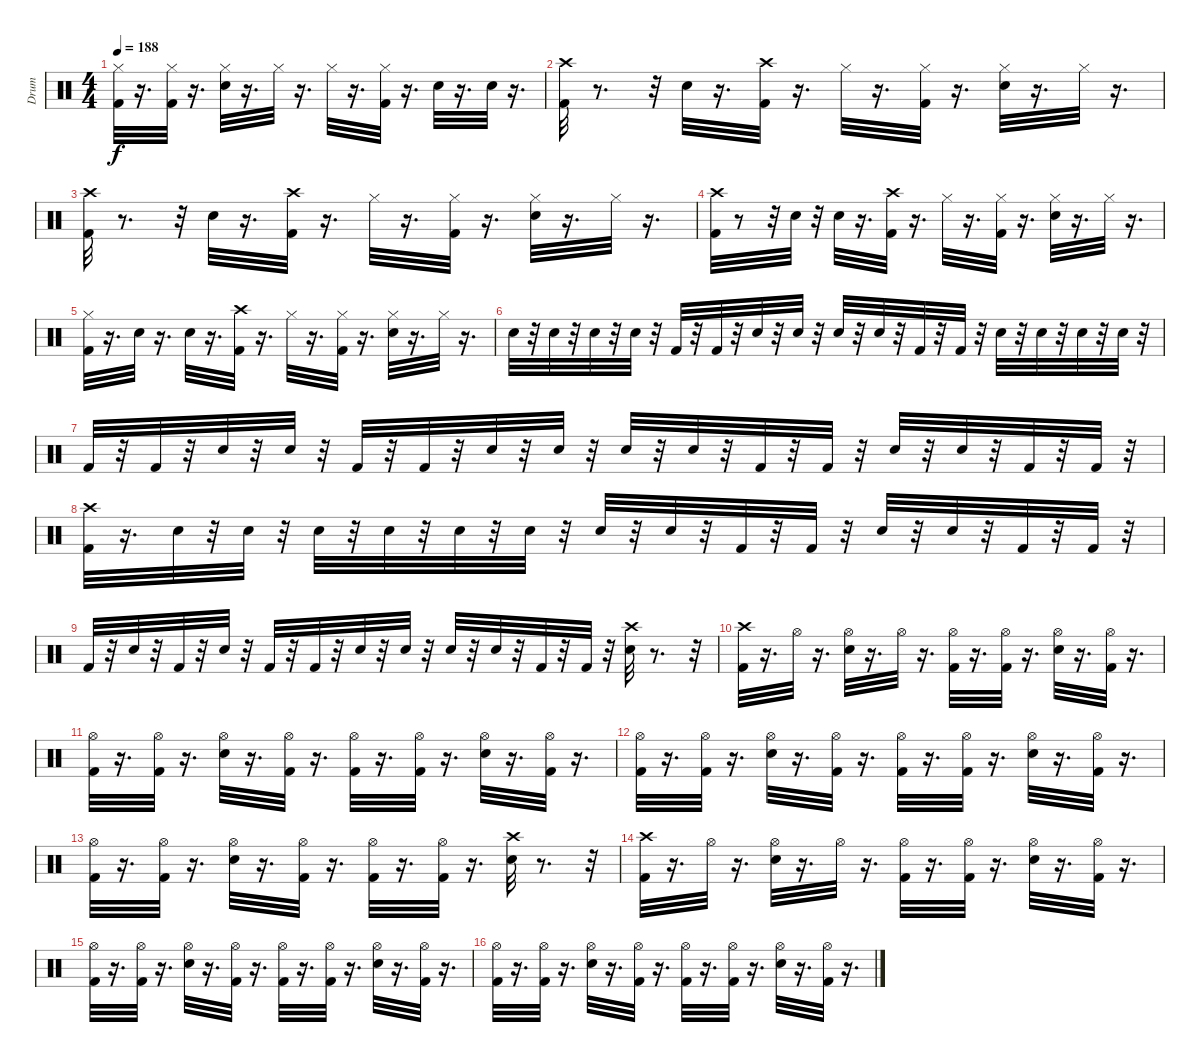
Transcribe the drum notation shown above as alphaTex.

\track ("Drum" "Drum") {instrument percussion}
\staff {score}
\articulation defaults
\ts (4 4)
\tempo 188
\clef neutral
\ks c
("Hi-Hat (closed)" "Kick (hit) 2").32{dy f} r.16{d} ("Hi-Hat (closed)" "Kick (hit) 2").32 r.16{d} ("Hi-Hat (closed)" "Snare (hit) 2").32 r.16{d} "Hi-Hat (closed)".32 r.16{d} "Hi-Hat (closed)".32 r.16{d} ("Hi-Hat (closed)" "Kick (hit) 2").32 r.16{d} "Snare (hit) 2".32 r.16{d} "Snare (hit) 2".32 r.16{d} |
("Crash high (hit)" "Kick (hit) 2").32 r.8{d} r.32 "Snare (hit) 2".32 r.16{d} ("Crash high (hit)" "Kick (hit) 2").32 r.16{d} "Hi-Hat (closed)".32 r.16{d} ("Hi-Hat (closed)" "Kick (hit) 2").32 r.16{d} ("Hi-Hat (closed)" "Snare (hit) 2").32 r.16{d} "Hi-Hat (closed)".32 r.16{d} |
("Crash high (hit)" "Kick (hit) 2").32 r.8{d} r.32 "Snare (hit) 2".32 r.16{d} ("Crash high (hit)" "Kick (hit) 2").32 r.16{d} "Hi-Hat (closed)".32 r.16{d} ("Hi-Hat (closed)" "Kick (hit) 2").32 r.16{d} ("Hi-Hat (closed)" "Snare (hit) 2").32 r.16{d} "Hi-Hat (closed)".32 r.16{d} |
("Crash high (hit)" "Kick (hit) 2").32 r.8 r.32 "Snare (hit) 2".32 r.32 "Snare (hit) 2".32 r.16{d} ("Crash high (hit)" "Kick (hit) 2").32 r.16{d} "Hi-Hat (closed)".32 r.16{d} ("Hi-Hat (closed)" "Kick (hit) 2").32 r.16{d} ("Hi-Hat (closed)" "Snare (hit) 2").32 r.16{d} "Hi-Hat (closed)".32 r.16{d} |
("Hi-Hat (closed)" "Kick (hit) 2").32 r.16{d} "Snare (hit) 2".32 r.16{d} "Snare (hit) 2".32 r.16{d} ("Crash high (hit)" "Kick (hit) 2").32 r.16{d} "Hi-Hat (closed)".32 r.16{d} ("Hi-Hat (closed)" "Kick (hit) 2").32 r.16{d} ("Hi-Hat (closed)" "Snare (hit) 2").32 r.16{d} "Hi-Hat (closed)".32 r.16{d} |
"Snare (hit) 2".32 r.32 "Snare (hit) 2".32 r.32 "Snare (hit) 2".32 r.32 "Snare (hit) 2".32 r.32 "Kick (hit) 2".32 r.32 "Kick (hit) 2".32 r.32 "Snare (hit) 2".32 r.32 "Snare (hit) 2".32 r.32 "Snare (hit) 2".32 r.32 "Snare (hit) 2".32 r.32 "Kick (hit) 2".32 r.32 "Kick (hit) 2".32 r.32 "Snare (hit) 2".32 r.32 "Snare (hit) 2".32 r.32 "Snare (hit) 2".32 r.32 "Snare (hit) 2".32 r.32 |
"Kick (hit) 2".32 r.32 "Kick (hit) 2".32 r.32 "Snare (hit) 2".32 r.32 "Snare (hit) 2".32 r.32 "Kick (hit) 2".32 r.32 "Kick (hit) 2".32 r.32 "Snare (hit) 2".32 r.32 "Snare (hit) 2".32 r.32 "Snare (hit) 2".32 r.32 "Snare (hit) 2".32 r.32 "Kick (hit) 2".32 r.32 "Kick (hit) 2".32 r.32 "Snare (hit) 2".32 r.32 "Snare (hit) 2".32 r.32 "Kick (hit) 2".32 r.32 "Kick (hit) 2".32 r.32 |
("Crash high (hit)" "Kick (hit) 2").32 r.16{d} "Snare (hit) 2".32 r.32 "Snare (hit) 2".32 r.32 "Snare (hit) 2".32 r.32 "Snare (hit) 2".32 r.32 "Snare (hit) 2".32 r.32 "Snare (hit) 2".32 r.32 "Snare (hit) 2".32 r.32 "Snare (hit) 2".32 r.32 "Kick (hit) 2".32 r.32 "Kick (hit) 2".32 r.32 "Snare (hit) 2".32 r.32 "Snare (hit) 2".32 r.32 "Kick (hit) 2".32 r.32 "Kick (hit) 2".32 r.32 |
"Kick (hit) 2".32 r.32 "Snare (hit) 2".32 r.32 "Kick (hit) 2".32 r.32 "Snare (hit) 2".32 r.32 "Kick (hit) 2".32 r.32 "Kick (hit) 2".32 r.32 "Snare (hit) 2".32 r.32 "Snare (hit) 2".32 r.32 "Snare (hit) 2".32 r.32 "Snare (hit) 2".32 r.32 "Kick (hit) 2".32 r.32 "Kick (hit) 2".32 r.32 ("Snare (hit) 2" "Crash high (hit)").32 r.8{d} r.32 |
("Crash high (hit)" "Kick (hit) 2").32 r.16{d} "Hi-Hat (open)".32 r.16{d} ("Hi-Hat (open)" "Snare (hit) 2").32 r.16{d} "Hi-Hat (open)".32 r.16{d} ("Hi-Hat (open)" "Kick (hit) 2").32 r.16{d} ("Hi-Hat (open)" "Kick (hit) 2").32 r.16{d} ("Hi-Hat (open)" "Snare (hit) 2").32 r.16{d} ("Hi-Hat (open)" "Kick (hit) 2").32 r.16{d} |
("Hi-Hat (open)" "Kick (hit) 2").32 r.16{d} ("Hi-Hat (open)" "Kick (hit) 2").32 r.16{d} ("Hi-Hat (open)" "Snare (hit) 2").32 r.16{d} ("Hi-Hat (open)" "Kick (hit) 2").32 r.16{d} ("Hi-Hat (open)" "Kick (hit) 2").32 r.16{d} ("Hi-Hat (open)" "Kick (hit) 2").32 r.16{d} ("Hi-Hat (open)" "Snare (hit) 2").32 r.16{d} ("Hi-Hat (open)" "Kick (hit) 2").32 r.16{d} |
("Hi-Hat (open)" "Kick (hit) 2").32 r.16{d} ("Hi-Hat (open)" "Kick (hit) 2").32 r.16{d} ("Hi-Hat (open)" "Snare (hit) 2").32 r.16{d} ("Hi-Hat (open)" "Kick (hit) 2").32 r.16{d} ("Hi-Hat (open)" "Kick (hit) 2").32 r.16{d} ("Hi-Hat (open)" "Kick (hit) 2").32 r.16{d} ("Hi-Hat (open)" "Snare (hit) 2").32 r.16{d} ("Hi-Hat (open)" "Kick (hit) 2").32 r.16{d} |
("Hi-Hat (open)" "Kick (hit) 2").32 r.16{d} ("Hi-Hat (open)" "Kick (hit) 2").32 r.16{d} ("Hi-Hat (open)" "Snare (hit) 2").32 r.16{d} ("Hi-Hat (open)" "Kick (hit) 2").32 r.16{d} ("Hi-Hat (open)" "Kick (hit) 2").32 r.16{d} ("Hi-Hat (open)" "Kick (hit) 2").32 r.16{d} ("Crash high (hit)" "Snare (hit) 2").32 r.8{d} r.32 |
("Crash high (hit)" "Kick (hit) 2").32 r.16{d} "Hi-Hat (open)".32 r.16{d} ("Hi-Hat (open)" "Snare (hit) 2").32 r.16{d} "Hi-Hat (open)".32 r.16{d} ("Hi-Hat (open)" "Kick (hit) 2").32 r.16{d} ("Hi-Hat (open)" "Kick (hit) 2").32 r.16{d} ("Hi-Hat (open)" "Snare (hit) 2").32 r.16{d} ("Hi-Hat (open)" "Kick (hit) 2").32 r.16{d} |
("Hi-Hat (open)" "Kick (hit) 2").32 r.16{d} ("Hi-Hat (open)" "Kick (hit) 2").32 r.16{d} ("Hi-Hat (open)" "Snare (hit) 2").32 r.16{d} ("Hi-Hat (open)" "Kick (hit) 2").32 r.16{d} ("Hi-Hat (open)" "Kick (hit) 2").32 r.16{d} ("Hi-Hat (open)" "Kick (hit) 2").32 r.16{d} ("Hi-Hat (open)" "Snare (hit) 2").32 r.16{d} ("Hi-Hat (open)" "Kick (hit) 2").32 r.16{d} |
("Hi-Hat (open)" "Kick (hit) 2").32 r.16{d} ("Hi-Hat (open)" "Kick (hit) 2").32 r.16{d} ("Hi-Hat (open)" "Snare (hit) 2").32 r.16{d} ("Hi-Hat (open)" "Kick (hit) 2").32 r.16{d} ("Hi-Hat (open)" "Kick (hit) 2").32 r.16{d} ("Hi-Hat (open)" "Kick (hit) 2").32 r.16{d} ("Hi-Hat (open)" "Snare (hit) 2").32 r.16{d} ("Hi-Hat (open)" "Kick (hit) 2").32 r.16{d}
